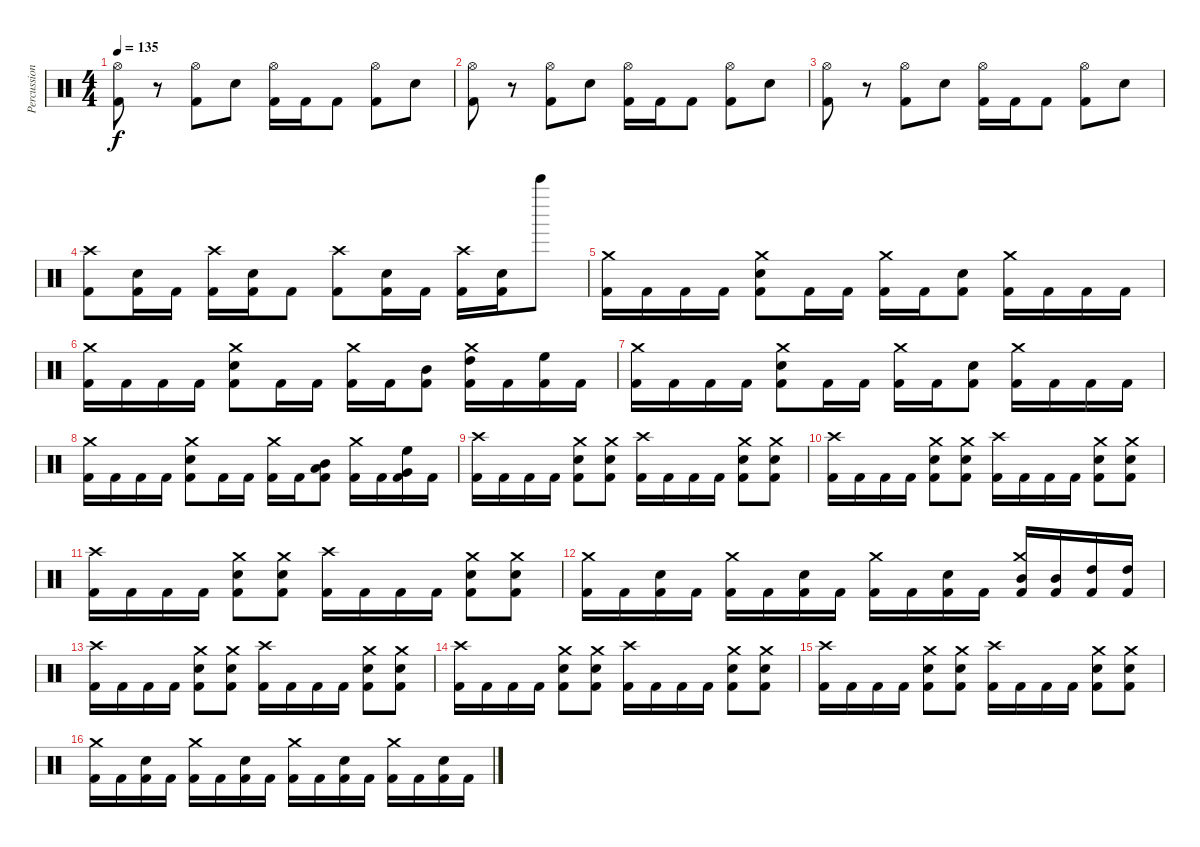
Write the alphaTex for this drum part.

\track ("Percussion" "Percussion") {instrument percussion}
\staff {score}
\articulation defaults
\ts (4 4)
\tempo 135
\clef neutral
\ks c
("Hi-Hat (open)" "Kick (hit) 2").8{dy f} r.8 ("Hi-Hat (open)" "Kick (hit) 2").8 "Snare (hit) 2".8 ("Hi-Hat (open)" "Kick (hit) 2").16 "Kick (hit) 2".16 "Kick (hit) 2".8 ("Hi-Hat (open)" "Kick (hit) 2").8 "Snare (hit) 2".8 |
("Hi-Hat (open)" "Kick (hit) 2").8 r.8 ("Hi-Hat (open)" "Kick (hit) 2").8 "Snare (hit) 2".8 ("Hi-Hat (open)" "Kick (hit) 2").16 "Kick (hit) 2".16 "Kick (hit) 2".8 ("Hi-Hat (open)" "Kick (hit) 2").8 "Snare (hit) 2".8 |
("Hi-Hat (open)" "Kick (hit) 2").8 r.8 ("Hi-Hat (open)" "Kick (hit) 2").8 "Snare (hit) 2".8 ("Hi-Hat (open)" "Kick (hit) 2").16 "Kick (hit) 2".16 "Kick (hit) 2".8 ("Hi-Hat (open)" "Kick (hit) 2").8 "Snare (hit) 2".8 |
("Crash high (hit)" "Kick (hit) 2").8 ("Snare (hit) 2" "Kick (hit) 2").16 "Kick (hit) 2".16 ("Crash high (hit)" "Kick (hit) 2").16 ("Snare (hit) 2" "Kick (hit) 2").16 "Kick (hit) 2".8 ("Crash high (hit)" "Kick (hit) 2").8 ("Snare (hit) 2" "Kick (hit) 2").16 "Kick (hit) 2".16 ("Crash high (hit)" "Kick (hit) 2").16 ("Snare (hit) 2" "Kick (hit) 2").16 "Bell Tree (hit)".8 |
("Crash medium (hit)" "Kick (hit) 2").16 "Kick (hit) 2".16 "Kick (hit) 2".16 "Kick (hit) 2".16 ("Crash medium (hit)" "Snare (hit) 2" "Kick (hit) 2").8 "Kick (hit) 2".16 "Kick (hit) 2".16 ("Crash medium (hit)" "Kick (hit) 2").16 "Kick (hit) 2".16 ("Snare (hit) 2" "Kick (hit) 2").8 ("Crash medium (hit)" "Kick (hit) 2").16 "Kick (hit) 2".16 "Kick (hit) 2".16 "Kick (hit) 2".16 |
("Crash medium (hit)" "Kick (hit) 2").16 "Kick (hit) 2".16 "Kick (hit) 2".16 "Kick (hit) 2".16 ("Crash medium (hit)" "Snare (hit) 2" "Kick (hit) 2").8 "Kick (hit) 2".16 "Kick (hit) 2".16 ("Crash medium (hit)" "Kick (hit) 2").16 "Kick (hit) 2".16 ("Mid Tom (hit)" "Kick (hit) 2").8 ("Crash medium (hit)" "High Tom (hit)" "Kick (hit) 2").16 "Kick (hit) 2".16 ("High Floor Tom (hit)" "Kick (hit) 2").16 "Kick (hit) 2".16 |
("Crash medium (hit)" "Kick (hit) 2").16 "Kick (hit) 2".16 "Kick (hit) 2".16 "Kick (hit) 2".16 ("Crash medium (hit)" "Snare (hit) 2" "Kick (hit) 2").8 "Kick (hit) 2".16 "Kick (hit) 2".16 ("Crash medium (hit)" "Kick (hit) 2").16 "Kick (hit) 2".16 ("Snare (hit) 2" "Kick (hit) 2").8 ("Crash medium (hit)" "Kick (hit) 2").16 "Kick (hit) 2".16 "Kick (hit) 2".16 "Kick (hit) 2".16 |
("Crash medium (hit)" "Kick (hit) 2").16 "Kick (hit) 2".16 "Kick (hit) 2".16 "Kick (hit) 2".16 ("Crash medium (hit)" "Snare (hit) 2" "Kick (hit) 2").8 "Kick (hit) 2".16 "Kick (hit) 2".16 ("Crash medium (hit)" "Kick (hit) 2").16 "Kick (hit) 2".16 ("Low Floor Tom (hit)" "Mid Tom (hit)" "Kick (hit) 2").8 ("Crash medium (hit)" "Kick (hit) 2").16 "Kick (hit) 2".16 ("Very Low Tom (hit)" "High Floor Tom (hit)" "Kick (hit) 2").16 "Kick (hit) 2".16 |
("Crash high (hit)" "Kick (hit) 2").16 "Kick (hit) 2".16 "Kick (hit) 2".16 "Kick (hit) 2".16 ("Crash medium (hit)" "Snare (hit) 2" "Kick (hit) 2").8 ("Crash medium (hit)" "Snare (hit) 2" "Kick (hit) 2").8 ("Crash high (hit)" "Kick (hit) 2").16 "Kick (hit) 2".16 "Kick (hit) 2".16 "Kick (hit) 2".16 ("Crash medium (hit)" "Snare (hit) 2" "Kick (hit) 2").8 ("Crash medium (hit)" "Snare (hit) 2" "Kick (hit) 2").8 |
("Crash high (hit)" "Kick (hit) 2").16 "Kick (hit) 2".16 "Kick (hit) 2".16 "Kick (hit) 2".16 ("Crash medium (hit)" "Snare (hit) 2" "Kick (hit) 2").8 ("Crash medium (hit)" "Snare (hit) 2" "Kick (hit) 2").8 ("Crash high (hit)" "Kick (hit) 2").16 "Kick (hit) 2".16 "Kick (hit) 2".16 "Kick (hit) 2".16 ("Crash medium (hit)" "Snare (hit) 2" "Kick (hit) 2").8 ("Crash medium (hit)" "Snare (hit) 2" "Kick (hit) 2").8 |
("Crash high (hit)" "Kick (hit) 2").16 "Kick (hit) 2".16 "Kick (hit) 2".16 "Kick (hit) 2".16 ("Crash medium (hit)" "Snare (hit) 2" "Kick (hit) 2").8 ("Crash medium (hit)" "Snare (hit) 2" "Kick (hit) 2").8 ("Crash high (hit)" "Kick (hit) 2").16 "Kick (hit) 2".16 "Kick (hit) 2".16 "Kick (hit) 2".16 ("Crash medium (hit)" "Snare (hit) 2" "Kick (hit) 2").8 ("Crash medium (hit)" "Snare (hit) 2" "Kick (hit) 2").8 |
("Crash medium (hit)" "Kick (hit) 2").16 "Kick (hit) 2".16 ("Snare (hit) 2" "Kick (hit) 2").16 "Kick (hit) 2".16 ("Crash medium (hit)" "Kick (hit) 2").16 "Kick (hit) 2".16 ("Snare (hit) 2" "Kick (hit) 2").16 "Kick (hit) 2".16 ("Crash medium (hit)" "Kick (hit) 2").16 "Kick (hit) 2".16 ("Snare (hit) 2" "Kick (hit) 2").16 "Kick (hit) 2".16 ("Crash medium (hit)" "Mid Tom (hit)" "Kick (hit) 2").16 ("Mid Tom (hit)" "Kick (hit) 2").16 ("High Tom (hit)" "Kick (hit) 2").16 ("High Tom (hit)" "Kick (hit) 2").16 |
("Crash high (hit)" "Kick (hit) 2").16 "Kick (hit) 2".16 "Kick (hit) 2".16 "Kick (hit) 2".16 ("Crash medium (hit)" "Snare (hit) 2" "Kick (hit) 2").8 ("Crash medium (hit)" "Snare (hit) 2" "Kick (hit) 2").8 ("Crash high (hit)" "Kick (hit) 2").16 "Kick (hit) 2".16 "Kick (hit) 2".16 "Kick (hit) 2".16 ("Crash medium (hit)" "Snare (hit) 2" "Kick (hit) 2").8 ("Crash medium (hit)" "Snare (hit) 2" "Kick (hit) 2").8 |
("Crash high (hit)" "Kick (hit) 2").16 "Kick (hit) 2".16 "Kick (hit) 2".16 "Kick (hit) 2".16 ("Crash medium (hit)" "Snare (hit) 2" "Kick (hit) 2").8 ("Crash medium (hit)" "Snare (hit) 2" "Kick (hit) 2").8 ("Crash high (hit)" "Kick (hit) 2").16 "Kick (hit) 2".16 "Kick (hit) 2".16 "Kick (hit) 2".16 ("Crash medium (hit)" "Snare (hit) 2" "Kick (hit) 2").8 ("Crash medium (hit)" "Snare (hit) 2" "Kick (hit) 2").8 |
("Crash high (hit)" "Kick (hit) 2").16 "Kick (hit) 2".16 "Kick (hit) 2".16 "Kick (hit) 2".16 ("Crash medium (hit)" "Snare (hit) 2" "Kick (hit) 2").8 ("Crash medium (hit)" "Snare (hit) 2" "Kick (hit) 2").8 ("Crash high (hit)" "Kick (hit) 2").16 "Kick (hit) 2".16 "Kick (hit) 2".16 "Kick (hit) 2".16 ("Crash medium (hit)" "Snare (hit) 2" "Kick (hit) 2").8 ("Crash medium (hit)" "Snare (hit) 2" "Kick (hit) 2").8 |
("Crash medium (hit)" "Kick (hit) 2").16 "Kick (hit) 2".16 ("Snare (hit) 2" "Kick (hit) 2").16 "Kick (hit) 2".16 ("Crash medium (hit)" "Kick (hit) 2").16 "Kick (hit) 2".16 ("Snare (hit) 2" "Kick (hit) 2").16 "Kick (hit) 2".16 ("Crash medium (hit)" "Kick (hit) 2").16 "Kick (hit) 2".16 ("Snare (hit) 2" "Kick (hit) 2").16 "Kick (hit) 2".16 ("Crash medium (hit)" "Kick (hit) 2").16 "Kick (hit) 2".16 ("Snare (hit) 2" "Kick (hit) 2").16 "Kick (hit) 2".16
